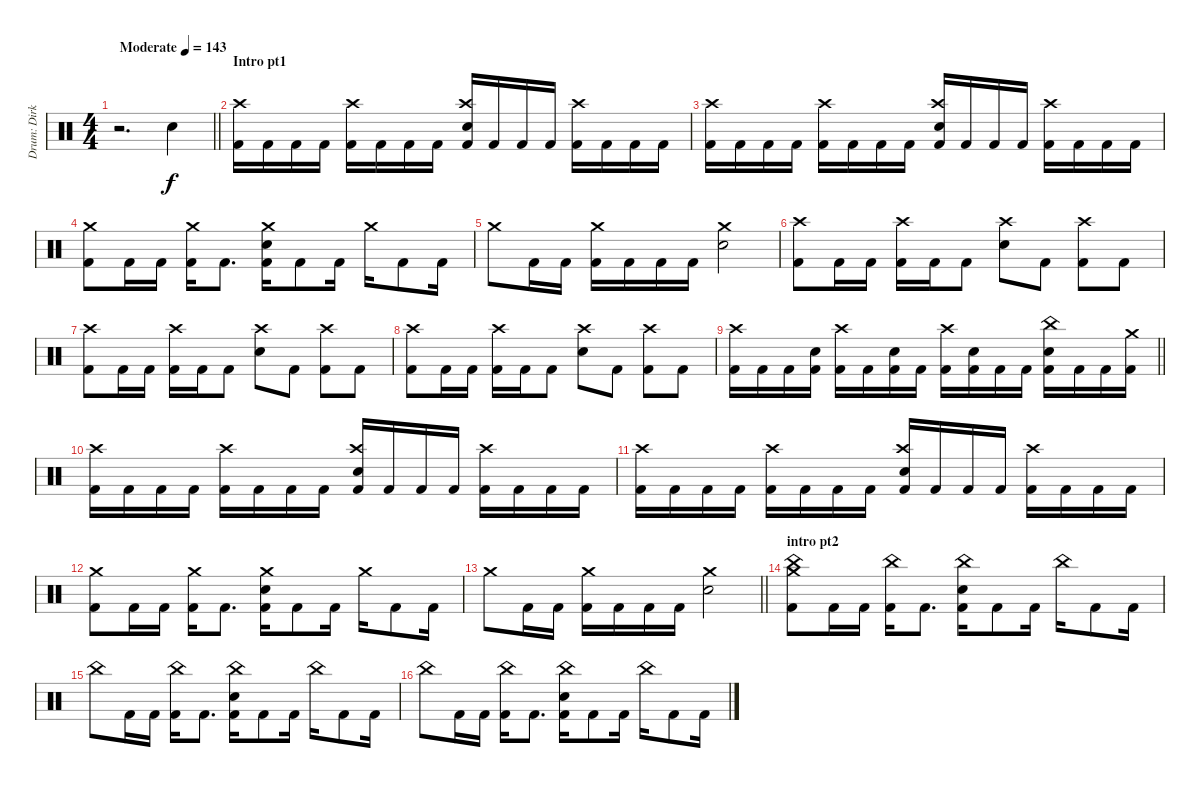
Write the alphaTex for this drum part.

\track ("Drum: Dirk" "Drum: Dirk") {instrument percussion}
\staff {score}
\articulation defaults
\ts (4 4)
\tempo (143 "Moderate")
\clef neutral
\barLineRight lightlight
\ks c
r.2{d dy f} "Electric Snare (hit)".4 |
\section ("" "Intro pt1")
("Crash high (hit)" "Kick (hit) 2").16 "Kick (hit) 2".16 "Kick (hit) 2".16 "Kick (hit) 2".16 ("Crash high (hit)" "Kick (hit) 2").16 "Kick (hit) 2".16 "Kick (hit) 2".16 "Kick (hit) 2".16 ("Crash high (hit)" "Electric Snare (hit)" "Kick (hit) 2").16 "Kick (hit) 2".16 "Kick (hit) 2".16 "Kick (hit) 2".16 ("Crash high (hit)" "Kick (hit) 2").16 "Kick (hit) 2".16 "Kick (hit) 2".16 "Kick (hit) 2".16 |
("Crash high (hit)" "Kick (hit) 2").16 "Kick (hit) 2".16 "Kick (hit) 2".16 "Kick (hit) 2".16 ("Crash high (hit)" "Kick (hit) 2").16 "Kick (hit) 2".16 "Kick (hit) 2".16 "Kick (hit) 2".16 ("Crash high (hit)" "Electric Snare (hit)" "Kick (hit) 2").16 "Kick (hit) 2".16 "Kick (hit) 2".16 "Kick (hit) 2".16 ("Crash high (hit)" "Kick (hit) 2").16 "Kick (hit) 2".16 "Kick (hit) 2".16 "Kick (hit) 2".16 |
("Crash medium (hit)" "Kick (hit) 2").8 "Kick (hit) 2".16 "Kick (hit) 2".16 ("Crash medium (hit)" "Kick (hit) 2").16 "Kick (hit) 2".8{d} ("Crash medium (hit)" "Electric Snare (hit)" "Kick (hit) 2").16 "Kick (hit) 2".8 "Kick (hit) 2".16 "Crash medium (hit)".16 "Kick (hit) 2".8 "Kick (hit) 2".16 |
"Crash medium (hit)".8 "Kick (hit) 2".16 "Kick (hit) 2".16 ("Crash medium (hit)" "Kick (hit) 2").16 "Kick (hit) 2".16 "Kick (hit) 2".16 "Kick (hit) 2".16 ("Crash medium (hit)" "Electric Snare (hit)").2 |
("Crash high (hit)" "Kick (hit) 2").8 "Kick (hit) 2".16 "Kick (hit) 2".16 ("Crash high (hit)" "Kick (hit) 2").16 "Kick (hit) 2".16 "Kick (hit) 2".8 ("Crash high (hit)" "Electric Snare (hit)").8 "Kick (hit) 2".8 ("Crash high (hit)" "Kick (hit) 2").8 "Kick (hit) 2".8 |
("Crash high (hit)" "Kick (hit) 2").8 "Kick (hit) 2".16 "Kick (hit) 2".16 ("Crash high (hit)" "Kick (hit) 2").16 "Kick (hit) 2".16 "Kick (hit) 2".8 ("Crash high (hit)" "Electric Snare (hit)").8 "Kick (hit) 2".8 ("Crash high (hit)" "Kick (hit) 2").8 "Kick (hit) 2".8 |
("Crash high (hit)" "Kick (hit) 2").8 "Kick (hit) 2".16 "Kick (hit) 2".16 ("Crash high (hit)" "Kick (hit) 2").16 "Kick (hit) 2".16 "Kick (hit) 2".8 ("Crash high (hit)" "Electric Snare (hit)").8 "Kick (hit) 2".8 ("Crash high (hit)" "Kick (hit) 2").8 "Kick (hit) 2".8 |
\barLineRight lightlight
("Crash high (hit)" "Kick (hit) 2").16 "Kick (hit) 2".16 "Kick (hit) 2".16 ("Electric Snare (hit)" "Kick (hit) 2").16 ("Crash high (hit)" "Kick (hit) 2").16 "Kick (hit) 2".16 ("Electric Snare (hit)" "Kick (hit) 2").16 "Kick (hit) 2".16 ("Crash high (hit)" "Kick (hit) 2").16 ("Electric Snare (hit)" "Kick (hit) 2").16 "Kick (hit) 2".16 "Kick (hit) 2".16 ("China (hit)" "Electric Snare (hit)" "Kick (hit) 2").16 "Kick (hit) 2".16 "Kick (hit) 2".16 ("Crash medium (hit)" "Kick (hit) 2").16 |
("Crash high (hit)" "Kick (hit) 2").16 "Kick (hit) 2".16 "Kick (hit) 2".16 "Kick (hit) 2".16 ("Crash high (hit)" "Kick (hit) 2").16 "Kick (hit) 2".16 "Kick (hit) 2".16 "Kick (hit) 2".16 ("Crash high (hit)" "Electric Snare (hit)" "Kick (hit) 2").16 "Kick (hit) 2".16 "Kick (hit) 2".16 "Kick (hit) 2".16 ("Crash high (hit)" "Kick (hit) 2").16 "Kick (hit) 2".16 "Kick (hit) 2".16 "Kick (hit) 2".16 |
("Crash high (hit)" "Kick (hit) 2").16 "Kick (hit) 2".16 "Kick (hit) 2".16 "Kick (hit) 2".16 ("Crash high (hit)" "Kick (hit) 2").16 "Kick (hit) 2".16 "Kick (hit) 2".16 "Kick (hit) 2".16 ("Crash high (hit)" "Electric Snare (hit)" "Kick (hit) 2").16 "Kick (hit) 2".16 "Kick (hit) 2".16 "Kick (hit) 2".16 ("Crash high (hit)" "Kick (hit) 2").16 "Kick (hit) 2".16 "Kick (hit) 2".16 "Kick (hit) 2".16 |
("Crash medium (hit)" "Kick (hit) 2").8 "Kick (hit) 2".16 "Kick (hit) 2".16 ("Crash medium (hit)" "Kick (hit) 2").16 "Kick (hit) 2".8{d} ("Crash medium (hit)" "Electric Snare (hit)" "Kick (hit) 2").16 "Kick (hit) 2".8 "Kick (hit) 2".16 "Crash medium (hit)".16 "Kick (hit) 2".8 "Kick (hit) 2".16 |
\barLineRight lightlight "Crash medium (hit)".8 "Kick (hit) 2".16 "Kick (hit) 2".16
("Crash medium (hit)" "Kick (hit) 2").16 "Kick (hit) 2".16 "Kick (hit) 2".16 "Kick (hit) 2".16 ("Crash medium (hit)" "Electric Snare (hit)").2 |
\section ("" "intro pt2")
("China (hit)" "Crash medium (hit)" "Kick (hit) 2").8 "Kick (hit) 2".16 "Kick (hit) 2".16 ("China (hit)" "Kick (hit) 2").16 "Kick (hit) 2".8{d} ("China (hit)" "Electric Snare (hit)" "Kick (hit) 2").16 "Kick (hit) 2".8 "Kick (hit) 2".16 "China (hit)".16 "Kick (hit) 2".8 "Kick (hit) 2".16 |
"China (hit)".8 "Kick (hit) 2".16 "Kick (hit) 2".16 ("China (hit)" "Kick (hit) 2").16 "Kick (hit) 2".8{d} ("China (hit)" "Electric Snare (hit)" "Kick (hit) 2").16 "Kick (hit) 2".8 "Kick (hit) 2".16 "China (hit)".16 "Kick (hit) 2".8 "Kick (hit) 2".16 |
"China (hit)".8 "Kick (hit) 2".16 "Kick (hit) 2".16 ("China (hit)" "Kick (hit) 2").16 "Kick (hit) 2".8{d} ("China (hit)" "Electric Snare (hit)" "Kick (hit) 2").16 "Kick (hit) 2".8 "Kick (hit) 2".16 "China (hit)".16 "Kick (hit) 2".8 "Kick (hit) 2".16
